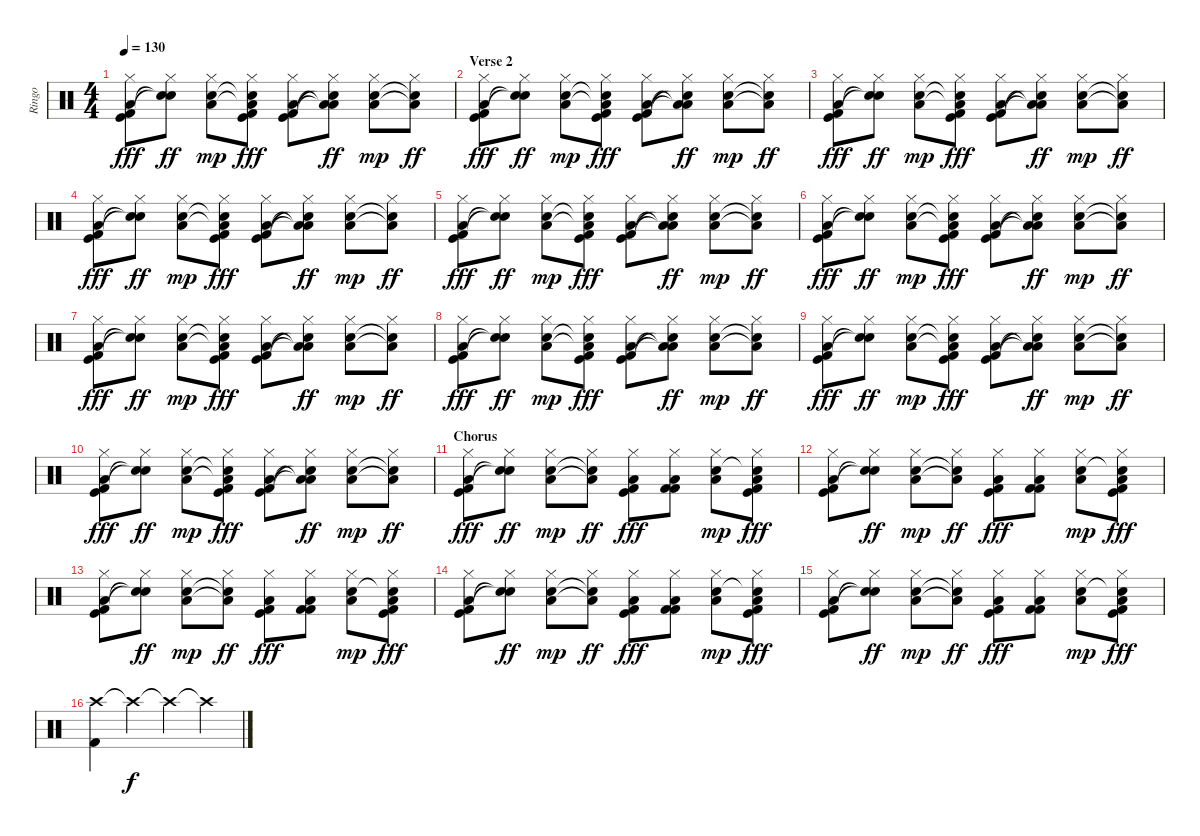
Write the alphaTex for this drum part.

\track ("Ringo" "Ringo") {instrument percussion}
\staff {score}
\articulation defaults
\ts (4 4)
\tempo 130
\clef neutral
\ks c
("Hi-Hat (closed)" "Low Floor Tom (hit)" "Kick (hit) 2" "Kick (hit)").8{dy fff} ("Hi-Hat (closed)" "Snare (hit)"{t} "Snare (hit)"{t}).8{dy ff} ("Hi-Hat (closed)" "Low Floor Tom (hit)" "Snare (hit) 2").8{dy mp} ("Hi-Hat (closed)" "Low Floor Tom (hit)"{t} "Snare (hit)"{t} "Kick (hit) 2" "Kick (hit)").8{dy fff} ("Hi-Hat (closed)" "Low Floor Tom (hit)" "Kick (hit) 2" "Kick (hit)").8 ("Hi-Hat (closed)" "Low Floor Tom (hit)"{t} "Low Floor Tom (hit)"{t} "Snare (hit)"{t}).8{dy ff} ("Hi-Hat (closed)" "Low Floor Tom (hit)" "Snare (hit) 2").8{dy mp} ("Hi-Hat (closed)" "Low Floor Tom (hit)"{t} "Snare (hit) 2"{t}).8{dy ff} |
\section ("" "Verse 2")
("Hi-Hat (closed)" "Low Floor Tom (hit)" "Kick (hit) 2" "Kick (hit)").8{dy fff} ("Hi-Hat (closed)" "Snare (hit)"{t} "Snare (hit)"{t}).8{dy ff} ("Hi-Hat (closed)" "Low Floor Tom (hit)" "Snare (hit) 2").8{dy mp} ("Hi-Hat (closed)" "Low Floor Tom (hit)"{t} "Snare (hit)"{t} "Kick (hit) 2" "Kick (hit)").8{dy fff} ("Hi-Hat (closed)" "Low Floor Tom (hit)" "Kick (hit) 2" "Kick (hit)").8 ("Hi-Hat (closed)" "Low Floor Tom (hit)"{t} "Low Floor Tom (hit)"{t} "Snare (hit)"{t}).8{dy ff} ("Hi-Hat (closed)" "Low Floor Tom (hit)" "Snare (hit) 2").8{dy mp} ("Hi-Hat (closed)" "Low Floor Tom (hit)"{t} "Snare (hit) 2"{t}).8{dy ff} |
("Hi-Hat (closed)" "Low Floor Tom (hit)" "Kick (hit) 2" "Kick (hit)").8{dy fff} ("Hi-Hat (closed)" "Snare (hit)"{t} "Snare (hit)"{t}).8{dy ff} ("Hi-Hat (closed)" "Low Floor Tom (hit)" "Snare (hit) 2").8{dy mp} ("Hi-Hat (closed)" "Low Floor Tom (hit)"{t} "Snare (hit)"{t} "Kick (hit) 2" "Kick (hit)").8{dy fff} ("Hi-Hat (closed)" "Low Floor Tom (hit)" "Kick (hit) 2" "Kick (hit)").8 ("Hi-Hat (closed)" "Low Floor Tom (hit)"{t} "Low Floor Tom (hit)"{t} "Snare (hit)"{t}).8{dy ff} ("Hi-Hat (closed)" "Low Floor Tom (hit)" "Snare (hit) 2").8{dy mp} ("Hi-Hat (closed)" "Low Floor Tom (hit)"{t} "Snare (hit) 2"{t}).8{dy ff} |
("Hi-Hat (closed)" "Low Floor Tom (hit)" "Kick (hit) 2" "Kick (hit)").8{dy fff} ("Hi-Hat (closed)" "Snare (hit)"{t} "Snare (hit)"{t}).8{dy ff} ("Hi-Hat (closed)" "Low Floor Tom (hit)" "Snare (hit) 2").8{dy mp} ("Hi-Hat (closed)" "Low Floor Tom (hit)"{t} "Snare (hit)"{t} "Kick (hit) 2" "Kick (hit)").8{dy fff} ("Hi-Hat (closed)" "Low Floor Tom (hit)" "Kick (hit) 2" "Kick (hit)").8 ("Hi-Hat (closed)" "Low Floor Tom (hit)"{t} "Low Floor Tom (hit)"{t} "Snare (hit)"{t}).8{dy ff} ("Hi-Hat (closed)" "Low Floor Tom (hit)" "Snare (hit) 2").8{dy mp} ("Hi-Hat (closed)" "Low Floor Tom (hit)"{t} "Snare (hit) 2"{t}).8{dy ff} |
("Hi-Hat (closed)" "Low Floor Tom (hit)" "Kick (hit) 2" "Kick (hit)").8{dy fff} ("Hi-Hat (closed)" "Snare (hit)"{t} "Snare (hit)"{t}).8{dy ff} ("Hi-Hat (closed)" "Low Floor Tom (hit)" "Snare (hit) 2").8{dy mp} ("Hi-Hat (closed)" "Low Floor Tom (hit)"{t} "Snare (hit)"{t} "Kick (hit) 2" "Kick (hit)").8{dy fff} ("Hi-Hat (closed)" "Low Floor Tom (hit)" "Kick (hit) 2" "Kick (hit)").8 ("Hi-Hat (closed)" "Low Floor Tom (hit)"{t} "Low Floor Tom (hit)"{t} "Snare (hit)"{t}).8{dy ff} ("Hi-Hat (closed)" "Low Floor Tom (hit)" "Snare (hit) 2").8{dy mp} ("Hi-Hat (closed)" "Low Floor Tom (hit)"{t} "Snare (hit) 2"{t}).8{dy ff} |
("Hi-Hat (closed)" "Low Floor Tom (hit)" "Kick (hit) 2" "Kick (hit)").8{dy fff} ("Hi-Hat (closed)" "Snare (hit)"{t} "Snare (hit)"{t}).8{dy ff} ("Hi-Hat (closed)" "Low Floor Tom (hit)" "Snare (hit) 2").8{dy mp} ("Hi-Hat (closed)" "Low Floor Tom (hit)"{t} "Snare (hit)"{t} "Kick (hit) 2" "Kick (hit)").8{dy fff} ("Hi-Hat (closed)" "Low Floor Tom (hit)" "Kick (hit) 2" "Kick (hit)").8 ("Hi-Hat (closed)" "Low Floor Tom (hit)"{t} "Low Floor Tom (hit)"{t} "Snare (hit)"{t}).8{dy ff} ("Hi-Hat (closed)" "Low Floor Tom (hit)" "Snare (hit) 2").8{dy mp} ("Hi-Hat (closed)" "Low Floor Tom (hit)"{t} "Snare (hit) 2"{t}).8{dy ff} |
("Hi-Hat (closed)" "Low Floor Tom (hit)" "Kick (hit) 2" "Kick (hit)").8{dy fff} ("Hi-Hat (closed)" "Snare (hit)"{t} "Snare (hit)"{t}).8{dy ff} ("Hi-Hat (closed)" "Low Floor Tom (hit)" "Snare (hit) 2").8{dy mp} ("Hi-Hat (closed)" "Low Floor Tom (hit)"{t} "Snare (hit)"{t} "Kick (hit) 2" "Kick (hit)").8{dy fff} ("Hi-Hat (closed)" "Low Floor Tom (hit)" "Kick (hit) 2" "Kick (hit)").8 ("Hi-Hat (closed)" "Low Floor Tom (hit)"{t} "Low Floor Tom (hit)"{t} "Snare (hit)"{t}).8{dy ff} ("Hi-Hat (closed)" "Low Floor Tom (hit)" "Snare (hit) 2").8{dy mp} ("Hi-Hat (closed)" "Low Floor Tom (hit)"{t} "Snare (hit) 2"{t}).8{dy ff} |
("Hi-Hat (closed)" "Low Floor Tom (hit)" "Kick (hit) 2" "Kick (hit)").8{dy fff} ("Hi-Hat (closed)" "Snare (hit)"{t} "Snare (hit)"{t}).8{dy ff} ("Hi-Hat (closed)" "Low Floor Tom (hit)" "Snare (hit) 2").8{dy mp} ("Hi-Hat (closed)" "Low Floor Tom (hit)"{t} "Snare (hit)"{t} "Kick (hit) 2" "Kick (hit)").8{dy fff} ("Hi-Hat (closed)" "Low Floor Tom (hit)" "Kick (hit) 2" "Kick (hit)").8 ("Hi-Hat (closed)" "Low Floor Tom (hit)"{t} "Low Floor Tom (hit)"{t} "Snare (hit)"{t}).8{dy ff} ("Hi-Hat (closed)" "Low Floor Tom (hit)" "Snare (hit) 2").8{dy mp} ("Hi-Hat (closed)" "Low Floor Tom (hit)"{t} "Snare (hit) 2"{t}).8{dy ff} |
("Hi-Hat (closed)" "Low Floor Tom (hit)" "Kick (hit) 2" "Kick (hit)").8{dy fff} ("Hi-Hat (closed)" "Snare (hit)"{t} "Snare (hit)"{t}).8{dy ff} ("Hi-Hat (closed)" "Low Floor Tom (hit)" "Snare (hit) 2").8{dy mp} ("Hi-Hat (closed)" "Low Floor Tom (hit)"{t} "Snare (hit)"{t} "Kick (hit) 2" "Kick (hit)").8{dy fff} ("Hi-Hat (closed)" "Low Floor Tom (hit)" "Kick (hit) 2" "Kick (hit)").8 ("Hi-Hat (closed)" "Low Floor Tom (hit)"{t} "Low Floor Tom (hit)"{t} "Snare (hit)"{t}).8{dy ff} ("Hi-Hat (closed)" "Low Floor Tom (hit)" "Snare (hit) 2").8{dy mp} ("Hi-Hat (closed)" "Low Floor Tom (hit)"{t} "Snare (hit) 2"{t}).8{dy ff} |
("Hi-Hat (closed)" "Low Floor Tom (hit)" "Kick (hit) 2" "Kick (hit)").8{dy fff} ("Hi-Hat (closed)" "Snare (hit)"{t} "Snare (hit)"{t}).8{dy ff} ("Hi-Hat (closed)" "Low Floor Tom (hit)" "Snare (hit) 2").8{dy mp} ("Hi-Hat (closed)" "Low Floor Tom (hit)"{t} "Snare (hit)"{t} "Kick (hit) 2" "Kick (hit)").8{dy fff} ("Hi-Hat (closed)" "Low Floor Tom (hit)" "Kick (hit) 2" "Kick (hit)").8 ("Hi-Hat (closed)" "Low Floor Tom (hit)"{t} "Low Floor Tom (hit)"{t} "Snare (hit)"{t}).8{dy ff} ("Hi-Hat (closed)" "Low Floor Tom (hit)" "Snare (hit) 2").8{dy mp} ("Hi-Hat (closed)" "Low Floor Tom (hit)"{t} "Snare (hit) 2"{t}).8{dy ff} |
\section ("" "Chorus")
("Hi-Hat (closed)" "Low Floor Tom (hit)" "Kick (hit) 2" "Kick (hit)").8{dy fff} ("Hi-Hat (closed)" "Snare (hit)"{t} "Snare (hit)"{t}).8{dy ff} ("Hi-Hat (closed)" "Low Floor Tom (hit)" "Snare (hit) 2").8{dy mp} ("Hi-Hat (closed)" "Low Floor Tom (hit)"{t} "Snare (hit)"{t}).8{dy ff} ("Hi-Hat (closed)" "Low Floor Tom (hit)" "Kick (hit) 2" "Kick (hit)").8{dy fff} ("Hi-Hat (closed)" "Low Floor Tom (hit)" "Kick (hit) 2" "Kick (hit) 2").8 ("Hi-Hat (closed)" "Low Floor Tom (hit)" "Snare (hit) 2").8{dy mp} ("Hi-Hat (closed)" "Low Floor Tom (hit)" "Snare (hit) 2"{t} "Kick (hit) 2" "Kick (hit)").8{dy fff} |
("Hi-Hat (closed)" "Low Floor Tom (hit)" "Kick (hit) 2" "Kick (hit)").8 ("Hi-Hat (closed)" "Snare (hit)"{t} "Snare (hit)"{t}).8{dy ff} ("Hi-Hat (closed)" "Low Floor Tom (hit)" "Snare (hit) 2").8{dy mp} ("Hi-Hat (closed)" "Low Floor Tom (hit)"{t} "Snare (hit)"{t}).8{dy ff} ("Hi-Hat (closed)" "Low Floor Tom (hit)" "Kick (hit) 2" "Kick (hit)").8{dy fff} ("Hi-Hat (closed)" "Low Floor Tom (hit)" "Kick (hit) 2" "Kick (hit) 2").8 ("Hi-Hat (closed)" "Low Floor Tom (hit)" "Snare (hit) 2").8{dy mp} ("Hi-Hat (closed)" "Low Floor Tom (hit)" "Snare (hit) 2"{t} "Kick (hit) 2" "Kick (hit)").8{dy fff} |
("Hi-Hat (closed)" "Low Floor Tom (hit)" "Kick (hit) 2" "Kick (hit)").8 ("Hi-Hat (closed)" "Snare (hit)"{t} "Snare (hit)"{t}).8{dy ff} ("Hi-Hat (closed)" "Low Floor Tom (hit)" "Snare (hit) 2").8{dy mp} ("Hi-Hat (closed)" "Low Floor Tom (hit)"{t} "Snare (hit)"{t}).8{dy ff} ("Hi-Hat (closed)" "Low Floor Tom (hit)" "Kick (hit) 2" "Kick (hit)").8{dy fff} ("Hi-Hat (closed)" "Low Floor Tom (hit)" "Kick (hit) 2" "Kick (hit) 2").8 ("Hi-Hat (closed)" "Low Floor Tom (hit)" "Snare (hit) 2").8{dy mp} ("Hi-Hat (closed)" "Low Floor Tom (hit)" "Snare (hit) 2"{t} "Kick (hit) 2" "Kick (hit)").8{dy fff} |
("Hi-Hat (closed)" "Low Floor Tom (hit)" "Kick (hit) 2" "Kick (hit)").8 ("Hi-Hat (closed)" "Snare (hit)"{t} "Snare (hit)"{t}).8{dy ff} ("Hi-Hat (closed)" "Low Floor Tom (hit)" "Snare (hit) 2").8{dy mp} ("Hi-Hat (closed)" "Low Floor Tom (hit)"{t} "Snare (hit)"{t}).8{dy ff} ("Hi-Hat (closed)" "Low Floor Tom (hit)" "Kick (hit) 2" "Kick (hit)").8{dy fff} ("Hi-Hat (closed)" "Low Floor Tom (hit)" "Kick (hit) 2" "Kick (hit) 2").8 ("Hi-Hat (closed)" "Low Floor Tom (hit)" "Snare (hit) 2").8{dy mp} ("Hi-Hat (closed)" "Low Floor Tom (hit)" "Snare (hit) 2"{t} "Kick (hit) 2" "Kick (hit)").8{dy fff} |
("Hi-Hat (closed)" "Low Floor Tom (hit)" "Kick (hit) 2" "Kick (hit)").8 ("Hi-Hat (closed)" "Snare (hit)"{t} "Snare (hit)"{t}).8{dy ff} ("Hi-Hat (closed)" "Low Floor Tom (hit)" "Snare (hit) 2").8{dy mp} ("Hi-Hat (closed)" "Low Floor Tom (hit)"{t} "Snare (hit)"{t}).8{dy ff} ("Hi-Hat (closed)" "Low Floor Tom (hit)" "Kick (hit) 2" "Kick (hit)").8{dy fff} ("Hi-Hat (closed)" "Low Floor Tom (hit)" "Kick (hit) 2" "Kick (hit) 2").8 ("Hi-Hat (closed)" "Low Floor Tom (hit)" "Snare (hit) 2").8{dy mp} ("Hi-Hat (closed)" "Low Floor Tom (hit)" "Snare (hit) 2"{t} "Kick (hit) 2" "Kick (hit)").8{dy fff} |
("Crash high (hit)" "Kick (hit) 2").4 "Crash high (hit)"{t}.4{dy f} "Crash high (hit)"{t}.4 "Crash high (hit)"{t}.4
